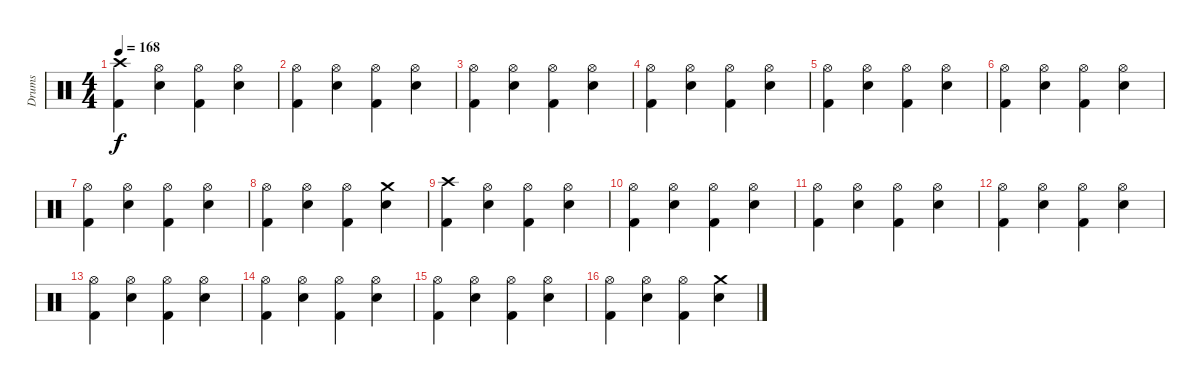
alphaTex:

\track ("Drums" "Drums") {instrument percussion}
\staff {score}
\articulation defaults
\ts (4 4)
\tempo 168
\clef neutral
\ks c
("Crash high (hit)" "Kick (hit) 2").4{dy f} ("Hi-Hat (open)" "Electric Snare (hit)").4 ("Hi-Hat (open)" "Kick (hit) 2").4 ("Hi-Hat (open)" "Electric Snare (hit)").4 |
("Hi-Hat (open)" "Kick (hit) 2").4 ("Hi-Hat (open)" "Electric Snare (hit)").4 ("Hi-Hat (open)" "Kick (hit) 2").4 ("Hi-Hat (open)" "Electric Snare (hit)").4 |
("Hi-Hat (open)" "Kick (hit) 2").4 ("Hi-Hat (open)" "Electric Snare (hit)").4 ("Hi-Hat (open)" "Kick (hit) 2").4 ("Hi-Hat (open)" "Electric Snare (hit)").4 |
("Hi-Hat (open)" "Kick (hit) 2").4 ("Hi-Hat (open)" "Electric Snare (hit)").4 ("Hi-Hat (open)" "Kick (hit) 2").4 ("Hi-Hat (open)" "Electric Snare (hit)").4 |
("Hi-Hat (open)" "Kick (hit) 2").4 ("Hi-Hat (open)" "Electric Snare (hit)").4 ("Hi-Hat (open)" "Kick (hit) 2").4 ("Hi-Hat (open)" "Electric Snare (hit)").4 |
("Hi-Hat (open)" "Kick (hit) 2").4 ("Hi-Hat (open)" "Electric Snare (hit)").4 ("Hi-Hat (open)" "Kick (hit) 2").4 ("Hi-Hat (open)" "Electric Snare (hit)").4 |
("Hi-Hat (open)" "Kick (hit) 2").4 ("Hi-Hat (open)" "Electric Snare (hit)").4 ("Hi-Hat (open)" "Kick (hit) 2").4 ("Hi-Hat (open)" "Electric Snare (hit)").4 |
("Hi-Hat (open)" "Kick (hit) 2").4 ("Hi-Hat (open)" "Electric Snare (hit)").4 ("Hi-Hat (open)" "Kick (hit) 2").4 ("Crash medium (hit)" "Electric Snare (hit)").4 |
("Crash high (hit)" "Kick (hit) 2").4 ("Hi-Hat (open)" "Electric Snare (hit)").4 ("Hi-Hat (open)" "Kick (hit) 2").4 ("Hi-Hat (open)" "Electric Snare (hit)").4 |
("Hi-Hat (open)" "Kick (hit) 2").4 ("Hi-Hat (open)" "Electric Snare (hit)").4 ("Hi-Hat (open)" "Kick (hit) 2").4 ("Hi-Hat (open)" "Electric Snare (hit)").4 |
("Hi-Hat (open)" "Kick (hit) 2").4 ("Hi-Hat (open)" "Electric Snare (hit)").4 ("Hi-Hat (open)" "Kick (hit) 2").4 ("Hi-Hat (open)" "Electric Snare (hit)").4 |
("Hi-Hat (open)" "Kick (hit) 2").4 ("Hi-Hat (open)" "Electric Snare (hit)").4 ("Hi-Hat (open)" "Kick (hit) 2").4 ("Hi-Hat (open)" "Electric Snare (hit)").4 |
("Hi-Hat (open)" "Kick (hit) 2").4 ("Hi-Hat (open)" "Electric Snare (hit)").4 ("Hi-Hat (open)" "Kick (hit) 2").4 ("Hi-Hat (open)" "Electric Snare (hit)").4 |
("Hi-Hat (open)" "Kick (hit) 2").4 ("Hi-Hat (open)" "Electric Snare (hit)").4 ("Hi-Hat (open)" "Kick (hit) 2").4 ("Hi-Hat (open)" "Electric Snare (hit)").4 |
("Hi-Hat (open)" "Kick (hit) 2").4 ("Hi-Hat (open)" "Electric Snare (hit)").4 ("Hi-Hat (open)" "Kick (hit) 2").4 ("Hi-Hat (open)" "Electric Snare (hit)").4 |
("Hi-Hat (open)" "Kick (hit) 2").4 ("Hi-Hat (open)" "Electric Snare (hit)").4 ("Hi-Hat (open)" "Kick (hit) 2").4 ("Crash medium (hit)" "Electric Snare (hit)").4
